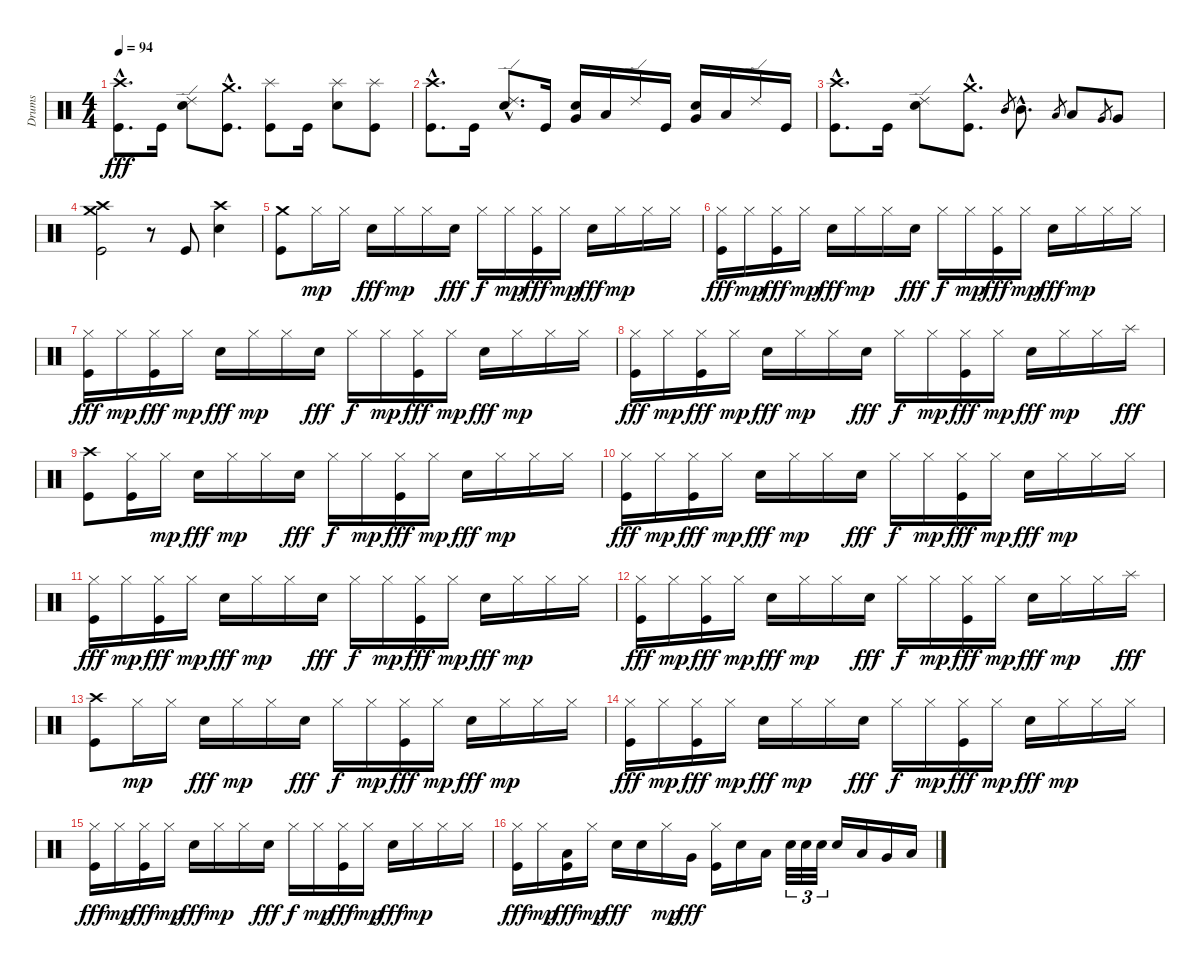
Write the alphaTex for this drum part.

\track ("Drums" "Drums") {instrument percussion}
\staff {score}
\articulation defaults
\ts (4 4)
\tempo 94
\clef neutral
\ks c
("Crash high (hit)"{hac} "Kick (hit)"{hac}).8{d dy fff} "Kick (hit)".16 ("Ride (edge) 2" "Snare (hit) 2").8 ("Crash medium (hit)"{hac} "Kick (hit)"{hac}).8{d} ("Splash (hit)" "Kick (hit)").8 "Kick (hit)".16 ("Splash (hit)" "Snare (hit) 2").8 ("Splash (hit)" "Kick (hit)").8 |
("Crash high (hit)"{hac} "Kick (hit)"{hac}).8{d} "Kick (hit)".16 ("Ride (edge) 2"{hac} "Snare (hit) 2"{hac}).8{d} "Kick (hit)".16 ("Very Low Tom (hit)" "Snare (hit) 2").16 "Low Floor Tom (hit)".16 "Ride (edge) 2".16 "Kick (hit)".16 ("Very Low Tom (hit)" "Snare (hit) 2").16 "Low Floor Tom (hit)".16 "Ride (edge) 2".16 "Kick (hit)".16 |
("Crash high (hit)"{hac} "Kick (hit)"{hac}).8{d} "Kick (hit)".16 ("Ride (edge) 2" "Snare (hit) 2").8 ("Crash medium (hit)"{hac} "Kick (hit)"{hac}).8{d} "Mid Tom (hit)".8{gr} "Mid Tom (hit)"{hac}.8{d} "Low Tom (hit)".8{gr} "Low Tom (hit)".8 "Very Low Tom (hit)".8{gr} "Very Low Tom (hit)".8 |
("Crash high (hit)" "Crash medium (hit)" "Kick (hit)").2 r.8 "Kick (hit)".8 ("Crash high (hit)" "Snare (hit) 2").4 |
("Crash medium (hit)" "Kick (hit)").8 "Hi-Hat (closed)".16{dy mp} "Hi-Hat (closed)".16 "Snare (hit) 2".16{dy fff} "Hi-Hat (closed)".16{dy mp} "Hi-Hat (closed)".16 "Snare (hit) 2".16{dy fff} "Hi-Hat (closed)".16{dy f} "Hi-Hat (closed)".16{dy mp} ("Hi-Hat (closed)" "Kick (hit)").16{dy fff} "Hi-Hat (closed)".16{dy mp} "Snare (hit) 2".16{dy fff} "Hi-Hat (closed)".16{dy mp} "Hi-Hat (closed)".16 "Hi-Hat (closed)".16 |
("Hi-Hat (closed)" "Kick (hit)").16{dy fff} "Hi-Hat (closed)".16{dy mp} ("Hi-Hat (closed)" "Kick (hit)").16{dy fff} "Hi-Hat (closed)".16{dy mp} "Snare (hit) 2".16{dy fff} "Hi-Hat (closed)".16{dy mp} "Hi-Hat (closed)".16 "Snare (hit) 2".16{dy fff} "Hi-Hat (closed)".16{dy f} "Hi-Hat (closed)".16{dy mp} ("Hi-Hat (closed)" "Kick (hit)").16{dy fff} "Hi-Hat (closed)".16{dy mp} "Snare (hit) 2".16{dy fff} "Hi-Hat (closed)".16{dy mp} "Hi-Hat (closed)".16 "Hi-Hat (closed)".16 |
("Hi-Hat (closed)" "Kick (hit)").16{dy fff} "Hi-Hat (closed)".16{dy mp} ("Hi-Hat (closed)" "Kick (hit)").16{dy fff} "Hi-Hat (closed)".16{dy mp} "Snare (hit) 2".16{dy fff} "Hi-Hat (closed)".16{dy mp} "Hi-Hat (closed)".16 "Snare (hit) 2".16{dy fff} "Hi-Hat (closed)".16{dy f} "Hi-Hat (closed)".16{dy mp} ("Hi-Hat (closed)" "Kick (hit)").16{dy fff} "Hi-Hat (closed)".16{dy mp} "Snare (hit) 2".16{dy fff} "Hi-Hat (closed)".16{dy mp} "Hi-Hat (closed)".16 "Hi-Hat (closed)".16 |
("Hi-Hat (closed)" "Kick (hit)").16{dy fff} "Hi-Hat (closed)".16{dy mp} ("Hi-Hat (closed)" "Kick (hit)").16{dy fff} "Hi-Hat (closed)".16{dy mp} "Snare (hit) 2".16{dy fff} "Hi-Hat (closed)".16{dy mp} "Hi-Hat (closed)".16 "Snare (hit) 2".16{dy fff} "Hi-Hat (closed)".16{dy f} "Hi-Hat (closed)".16{dy mp} ("Hi-Hat (closed)" "Kick (hit)").16{dy fff} "Hi-Hat (closed)".16{dy mp} "Snare (hit) 2".16{dy fff} "Hi-Hat (closed)".16{dy mp} "Hi-Hat (closed)".16 "Splash (hit)".16{dy fff} |
("Crash high (hit)" "Kick (hit)").8 ("Hi-Hat (closed)" "Kick (hit)").16 "Hi-Hat (closed)".16{dy mp} "Snare (hit) 2".16{dy fff} "Hi-Hat (closed)".16{dy mp} "Hi-Hat (closed)".16 "Snare (hit) 2".16{dy fff} "Hi-Hat (closed)".16{dy f} "Hi-Hat (closed)".16{dy mp} ("Hi-Hat (closed)" "Kick (hit)").16{dy fff} "Hi-Hat (closed)".16{dy mp} "Snare (hit) 2".16{dy fff} "Hi-Hat (closed)".16{dy mp} "Hi-Hat (closed)".16 "Hi-Hat (closed)".16 |
("Hi-Hat (closed)" "Kick (hit)").16{dy fff} "Hi-Hat (closed)".16{dy mp} ("Hi-Hat (closed)" "Kick (hit)").16{dy fff} "Hi-Hat (closed)".16{dy mp} "Snare (hit) 2".16{dy fff} "Hi-Hat (closed)".16{dy mp} "Hi-Hat (closed)".16 "Snare (hit) 2".16{dy fff} "Hi-Hat (closed)".16{dy f} "Hi-Hat (closed)".16{dy mp} ("Hi-Hat (closed)" "Kick (hit)").16{dy fff} "Hi-Hat (closed)".16{dy mp} "Snare (hit) 2".16{dy fff} "Hi-Hat (closed)".16{dy mp} "Hi-Hat (closed)".16 "Hi-Hat (closed)".16 |
("Hi-Hat (closed)" "Kick (hit)").16{dy fff} "Hi-Hat (closed)".16{dy mp} ("Hi-Hat (closed)" "Kick (hit)").16{dy fff} "Hi-Hat (closed)".16{dy mp} "Snare (hit) 2".16{dy fff} "Hi-Hat (closed)".16{dy mp} "Hi-Hat (closed)".16 "Snare (hit) 2".16{dy fff} "Hi-Hat (closed)".16{dy f} "Hi-Hat (closed)".16{dy mp} ("Hi-Hat (closed)" "Kick (hit)").16{dy fff} "Hi-Hat (closed)".16{dy mp} "Snare (hit) 2".16{dy fff} "Hi-Hat (closed)".16{dy mp} "Hi-Hat (closed)".16 "Hi-Hat (closed)".16 |
("Hi-Hat (closed)" "Kick (hit)").16{dy fff} "Hi-Hat (closed)".16{dy mp} ("Hi-Hat (closed)" "Kick (hit)").16{dy fff} "Hi-Hat (closed)".16{dy mp} "Snare (hit) 2".16{dy fff} "Hi-Hat (closed)".16{dy mp} "Hi-Hat (closed)".16 "Snare (hit) 2".16{dy fff} "Hi-Hat (closed)".16{dy f} "Hi-Hat (closed)".16{dy mp} ("Hi-Hat (closed)" "Kick (hit)").16{dy fff} "Hi-Hat (closed)".16{dy mp} "Snare (hit) 2".16{dy fff} "Hi-Hat (closed)".16{dy mp} "Hi-Hat (closed)".16 "Splash (hit)".16{dy fff} |
("Crash high (hit)" "Kick (hit)").8 "Hi-Hat (closed)".16{dy mp} "Hi-Hat (closed)".16 "Snare (hit) 2".16{dy fff} "Hi-Hat (closed)".16{dy mp} "Hi-Hat (closed)".16 "Snare (hit) 2".16{dy fff} "Hi-Hat (closed)".16{dy f} "Hi-Hat (closed)".16{dy mp} ("Hi-Hat (closed)" "Kick (hit)").16{dy fff} "Hi-Hat (closed)".16{dy mp} "Snare (hit) 2".16{dy fff} "Hi-Hat (closed)".16{dy mp} "Hi-Hat (closed)".16 "Hi-Hat (closed)".16 |
("Hi-Hat (closed)" "Kick (hit)").16{dy fff} "Hi-Hat (closed)".16{dy mp} ("Hi-Hat (closed)" "Kick (hit)").16{dy fff} "Hi-Hat (closed)".16{dy mp} "Snare (hit) 2".16{dy fff} "Hi-Hat (closed)".16{dy mp} "Hi-Hat (closed)".16 "Snare (hit) 2".16{dy fff} "Hi-Hat (closed)".16{dy f} "Hi-Hat (closed)".16{dy mp} ("Hi-Hat (closed)" "Kick (hit)").16{dy fff} "Hi-Hat (closed)".16{dy mp} "Snare (hit) 2".16{dy fff} "Hi-Hat (closed)".16{dy mp} "Hi-Hat (closed)".16 "Hi-Hat (closed)".16 |
("Hi-Hat (closed)" "Kick (hit)").16{dy fff} "Hi-Hat (closed)".16{dy mp} ("Hi-Hat (closed)" "Kick (hit)").16{dy fff} "Hi-Hat (closed)".16{dy mp} "Snare (hit) 2".16{dy fff} "Hi-Hat (closed)".16{dy mp} "Hi-Hat (closed)".16 "Snare (hit) 2".16{dy fff} "Hi-Hat (closed)".16{dy f} "Hi-Hat (closed)".16{dy mp} ("Hi-Hat (closed)" "Kick (hit)").16{dy fff} "Hi-Hat (closed)".16{dy mp} "Snare (hit) 2".16{dy fff} "Hi-Hat (closed)".16{dy mp} "Hi-Hat (closed)".16 "Hi-Hat (closed)".16 |
("Hi-Hat (closed)" "Kick (hit)").16{dy fff} "Hi-Hat (closed)".16{dy mp} ("Low Tom (hit)" "Kick (hit)").16{dy fff} "Hi-Hat (closed)".16{dy mp} "Snare (hit) 2".16{dy fff} "Snare (hit) 2".16 "Hi-Hat (closed)".16{dy mp} "Very Low Tom (hit)".16{dy fff} ("Hi-Hat (closed)" "Kick (hit)").16 "Snare (hit) 2".16 "Low Tom (hit)".16 "Snare (hit) 2".32{tu (3 2)} "Snare (hit) 2".32{tu (3 2)} "Snare (hit) 2".32{tu (3 2)} "Snare (hit) 2".16 "Low Tom (hit)".16 "Very Low Tom (hit)".16 "Low Floor Tom (hit)".16
